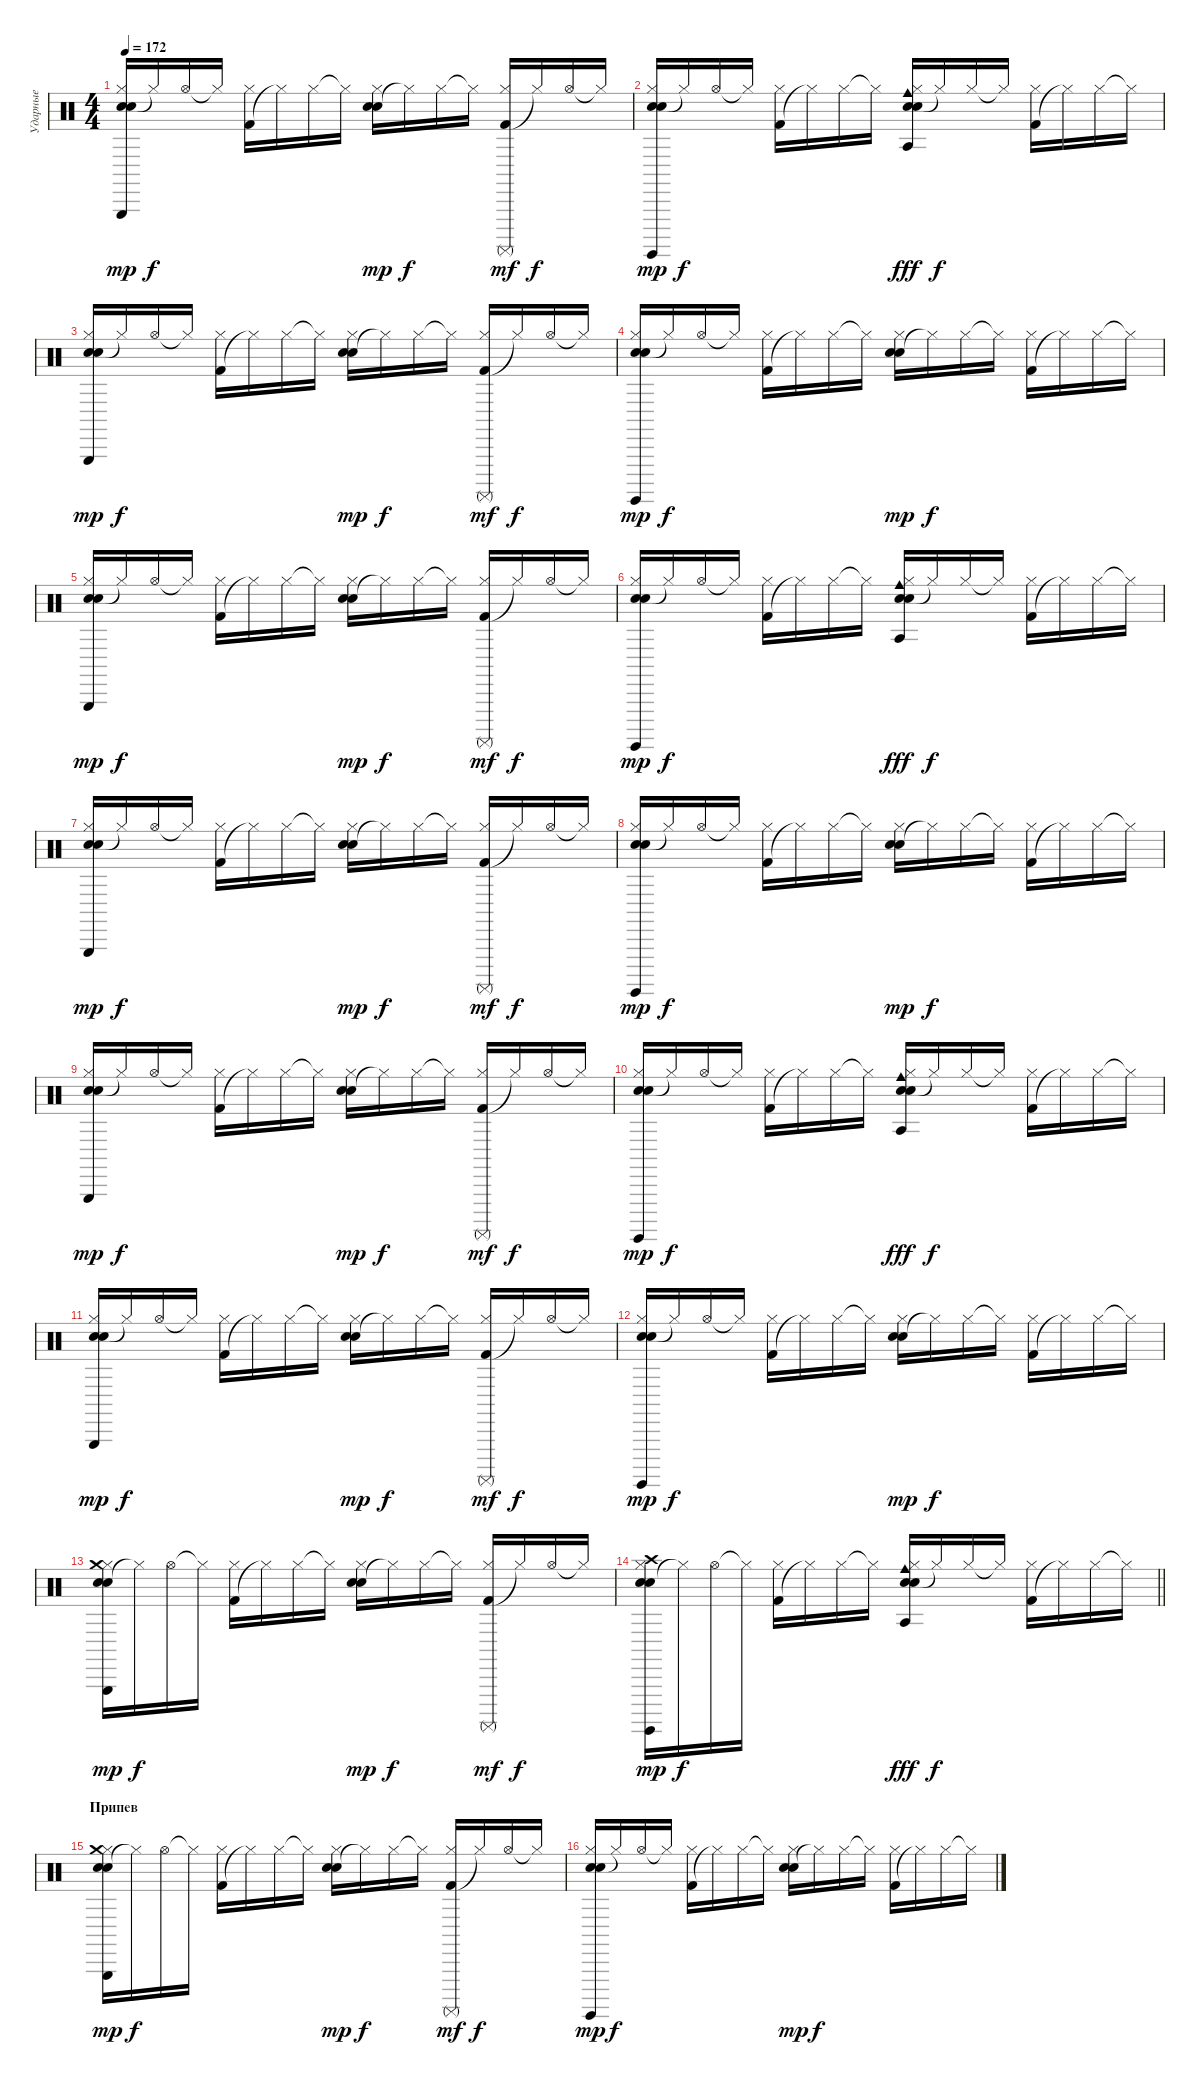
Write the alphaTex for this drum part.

\track ("Ударные" "Ударные") {instrument percussion}
\staff {score}
\articulation defaults
\ts (4 4)
\tempo 172
\clef neutral
\ks c
("Snare (hit) 2" "Electric Snare (hit)" "Hi-Hat (closed)" "Triangle (hit)").16{dy mp} "Hi-Hat (closed)"{t}.16{dy f} "Hi-Hat (open)".16 "Hi-Hat (closed)"{t}.16 ("Kick (hit) 2" "Hi-Hat (closed)").16 "Hi-Hat (closed)"{t}.16 "Hi-Hat (closed)".16 "Hi-Hat (closed)"{t}.16 ("Snare (hit) 2" "Electric Snare (hit)" "Hi-Hat (closed)").16{dy mp} "Hi-Hat (closed)"{t}.16{dy f} "Hi-Hat (closed)".16 "Hi-Hat (closed)"{t}.16 ("Kick (hit) 2" "Hi-Hat (closed)" "Surdo (mute)").16{dy mf} "Hi-Hat (closed)"{t}.16{dy f} "Hi-Hat (open)".16 "Hi-Hat (closed)"{t}.16 |
("Snare (hit) 2" "Electric Snare (hit)" "Hi-Hat (closed)" "Surdo (hit)").16{dy mp} "Hi-Hat (closed)"{t}.16{dy f} "Hi-Hat (open)".16 "Hi-Hat (closed)"{t}.16 ("Kick (hit) 2" "Hi-Hat (closed)").16 "Hi-Hat (closed)"{t}.16 "Hi-Hat (closed)".16 "Hi-Hat (closed)"{t}.16 ("Snare (hit) 2" "Electric Snare (hit)" "Hi-Hat (closed)" "Cowbell medium (hit)" "Agogo tow (hit)").16{dy fff} "Hi-Hat (closed)"{t}.16{dy f} "Hi-Hat (closed)".16 "Hi-Hat (closed)"{t}.16 ("Kick (hit) 2" "Hi-Hat (closed)").16 "Hi-Hat (closed)"{t}.16 "Hi-Hat (closed)".16 "Hi-Hat (closed)"{t}.16 |
("Snare (hit) 2" "Electric Snare (hit)" "Hi-Hat (closed)" "Triangle (hit)").16{dy mp} "Hi-Hat (closed)"{t}.16{dy f} "Hi-Hat (open)".16 "Hi-Hat (closed)"{t}.16 ("Kick (hit) 2" "Hi-Hat (closed)").16 "Hi-Hat (closed)"{t}.16 "Hi-Hat (closed)".16 "Hi-Hat (closed)"{t}.16 ("Snare (hit) 2" "Electric Snare (hit)" "Hi-Hat (closed)").16{dy mp} "Hi-Hat (closed)"{t}.16{dy f} "Hi-Hat (closed)".16 "Hi-Hat (closed)"{t}.16 ("Kick (hit) 2" "Hi-Hat (closed)" "Surdo (mute)").16{dy mf} "Hi-Hat (closed)"{t}.16{dy f} "Hi-Hat (open)".16 "Hi-Hat (closed)"{t}.16 |
("Snare (hit) 2" "Electric Snare (hit)" "Hi-Hat (closed)" "Surdo (hit)").16{dy mp} "Hi-Hat (closed)"{t}.16{dy f} "Hi-Hat (open)".16 "Hi-Hat (closed)"{t}.16 ("Kick (hit) 2" "Hi-Hat (closed)").16 "Hi-Hat (closed)"{t}.16 "Hi-Hat (closed)".16 "Hi-Hat (closed)"{t}.16 ("Snare (hit) 2" "Electric Snare (hit)" "Hi-Hat (closed)").16{dy mp} "Hi-Hat (closed)"{t}.16{dy f} "Hi-Hat (closed)".16 "Hi-Hat (closed)"{t}.16 ("Kick (hit) 2" "Hi-Hat (closed)").16 "Hi-Hat (closed)"{t}.16 "Hi-Hat (closed)".16 "Hi-Hat (closed)"{t}.16 |
("Snare (hit) 2" "Electric Snare (hit)" "Hi-Hat (closed)" "Triangle (hit)").16{dy mp} "Hi-Hat (closed)"{t}.16{dy f} "Hi-Hat (open)".16 "Hi-Hat (closed)"{t}.16 ("Kick (hit) 2" "Hi-Hat (closed)").16 "Hi-Hat (closed)"{t}.16 "Hi-Hat (closed)".16 "Hi-Hat (closed)"{t}.16 ("Snare (hit) 2" "Electric Snare (hit)" "Hi-Hat (closed)").16{dy mp} "Hi-Hat (closed)"{t}.16{dy f} "Hi-Hat (closed)".16 "Hi-Hat (closed)"{t}.16 ("Kick (hit) 2" "Hi-Hat (closed)" "Surdo (mute)").16{dy mf} "Hi-Hat (closed)"{t}.16{dy f} "Hi-Hat (open)".16 "Hi-Hat (closed)"{t}.16 |
("Snare (hit) 2" "Electric Snare (hit)" "Hi-Hat (closed)" "Surdo (hit)").16{dy mp} "Hi-Hat (closed)"{t}.16{dy f} "Hi-Hat (open)".16 "Hi-Hat (closed)"{t}.16 ("Kick (hit) 2" "Hi-Hat (closed)").16 "Hi-Hat (closed)"{t}.16 "Hi-Hat (closed)".16 "Hi-Hat (closed)"{t}.16 ("Snare (hit) 2" "Electric Snare (hit)" "Hi-Hat (closed)" "Cowbell medium (hit)" "Agogo tow (hit)").16{dy fff} "Hi-Hat (closed)"{t}.16{dy f} "Hi-Hat (closed)".16 "Hi-Hat (closed)"{t}.16 ("Kick (hit) 2" "Hi-Hat (closed)").16 "Hi-Hat (closed)"{t}.16 "Hi-Hat (closed)".16 "Hi-Hat (closed)"{t}.16 |
("Snare (hit) 2" "Electric Snare (hit)" "Hi-Hat (closed)" "Triangle (hit)").16{dy mp} "Hi-Hat (closed)"{t}.16{dy f} "Hi-Hat (open)".16 "Hi-Hat (closed)"{t}.16 ("Kick (hit) 2" "Hi-Hat (closed)").16 "Hi-Hat (closed)"{t}.16 "Hi-Hat (closed)".16 "Hi-Hat (closed)"{t}.16 ("Snare (hit) 2" "Electric Snare (hit)" "Hi-Hat (closed)").16{dy mp} "Hi-Hat (closed)"{t}.16{dy f} "Hi-Hat (closed)".16 "Hi-Hat (closed)"{t}.16 ("Kick (hit) 2" "Hi-Hat (closed)" "Surdo (mute)").16{dy mf} "Hi-Hat (closed)"{t}.16{dy f} "Hi-Hat (open)".16 "Hi-Hat (closed)"{t}.16 |
("Snare (hit) 2" "Electric Snare (hit)" "Hi-Hat (closed)" "Surdo (hit)").16{dy mp} "Hi-Hat (closed)"{t}.16{dy f} "Hi-Hat (open)".16 "Hi-Hat (closed)"{t}.16 ("Kick (hit) 2" "Hi-Hat (closed)").16 "Hi-Hat (closed)"{t}.16 "Hi-Hat (closed)".16 "Hi-Hat (closed)"{t}.16 ("Snare (hit) 2" "Electric Snare (hit)" "Hi-Hat (closed)").16{dy mp} "Hi-Hat (closed)"{t}.16{dy f} "Hi-Hat (closed)".16 "Hi-Hat (closed)"{t}.16 ("Kick (hit) 2" "Hi-Hat (closed)").16 "Hi-Hat (closed)"{t}.16 "Hi-Hat (closed)".16 "Hi-Hat (closed)"{t}.16 |
("Snare (hit) 2" "Electric Snare (hit)" "Hi-Hat (closed)" "Triangle (hit)").16{dy mp} "Hi-Hat (closed)"{t}.16{dy f} "Hi-Hat (open)".16 "Hi-Hat (closed)"{t}.16 ("Kick (hit) 2" "Hi-Hat (closed)").16 "Hi-Hat (closed)"{t}.16 "Hi-Hat (closed)".16 "Hi-Hat (closed)"{t}.16 ("Snare (hit) 2" "Electric Snare (hit)" "Hi-Hat (closed)").16{dy mp} "Hi-Hat (closed)"{t}.16{dy f} "Hi-Hat (closed)".16 "Hi-Hat (closed)"{t}.16 ("Kick (hit) 2" "Hi-Hat (closed)" "Surdo (mute)").16{dy mf} "Hi-Hat (closed)"{t}.16{dy f} "Hi-Hat (open)".16 "Hi-Hat (closed)"{t}.16 |
("Snare (hit) 2" "Electric Snare (hit)" "Hi-Hat (closed)" "Surdo (hit)").16{dy mp} "Hi-Hat (closed)"{t}.16{dy f} "Hi-Hat (open)".16 "Hi-Hat (closed)"{t}.16 ("Kick (hit) 2" "Hi-Hat (closed)").16 "Hi-Hat (closed)"{t}.16 "Hi-Hat (closed)".16 "Hi-Hat (closed)"{t}.16 ("Snare (hit) 2" "Electric Snare (hit)" "Hi-Hat (closed)" "Cowbell medium (hit)" "Agogo tow (hit)").16{dy fff} "Hi-Hat (closed)"{t}.16{dy f} "Hi-Hat (closed)".16 "Hi-Hat (closed)"{t}.16 ("Kick (hit) 2" "Hi-Hat (closed)").16 "Hi-Hat (closed)"{t}.16 "Hi-Hat (closed)".16 "Hi-Hat (closed)"{t}.16 |
("Snare (hit) 2" "Electric Snare (hit)" "Hi-Hat (closed)" "Triangle (hit)").16{dy mp} "Hi-Hat (closed)"{t}.16{dy f} "Hi-Hat (open)".16 "Hi-Hat (closed)"{t}.16 ("Kick (hit) 2" "Hi-Hat (closed)").16 "Hi-Hat (closed)"{t}.16 "Hi-Hat (closed)".16 "Hi-Hat (closed)"{t}.16 ("Snare (hit) 2" "Electric Snare (hit)" "Hi-Hat (closed)").16{dy mp} "Hi-Hat (closed)"{t}.16{dy f} "Hi-Hat (closed)".16 "Hi-Hat (closed)"{t}.16 ("Kick (hit) 2" "Hi-Hat (closed)" "Surdo (mute)").16{dy mf} "Hi-Hat (closed)"{t}.16{dy f} "Hi-Hat (open)".16 "Hi-Hat (closed)"{t}.16 |
("Snare (hit) 2" "Electric Snare (hit)" "Hi-Hat (closed)" "Surdo (hit)").16{dy mp} "Hi-Hat (closed)"{t}.16{dy f} "Hi-Hat (open)".16 "Hi-Hat (closed)"{t}.16 ("Kick (hit) 2" "Hi-Hat (closed)").16 "Hi-Hat (closed)"{t}.16 "Hi-Hat (closed)".16 "Hi-Hat (closed)"{t}.16 ("Snare (hit) 2" "Electric Snare (hit)" "Hi-Hat (closed)").16{dy mp} "Hi-Hat (closed)"{t}.16{dy f} "Hi-Hat (closed)".16 "Hi-Hat (closed)"{t}.16 ("Kick (hit) 2" "Hi-Hat (closed)").16 "Hi-Hat (closed)"{t}.16 "Hi-Hat (closed)".16 "Hi-Hat (closed)"{t}.16 |
("Snare (hit) 2" "Electric Snare (hit)" "Hi-Hat (closed)" "Triangle (hit)" "Crash medium (hit)").16{dy mp} "Hi-Hat (closed)"{t}.16{dy f} "Hi-Hat (open)".16 "Hi-Hat (closed)"{t}.16 ("Kick (hit) 2" "Hi-Hat (closed)").16 "Hi-Hat (closed)"{t}.16 "Hi-Hat (closed)".16 "Hi-Hat (closed)"{t}.16 ("Snare (hit) 2" "Electric Snare (hit)" "Hi-Hat (closed)").16{dy mp} "Hi-Hat (closed)"{t}.16{dy f} "Hi-Hat (closed)".16 "Hi-Hat (closed)"{t}.16 ("Kick (hit) 2" "Hi-Hat (closed)" "Surdo (mute)").16{dy mf} "Hi-Hat (closed)"{t}.16{dy f} "Hi-Hat (open)".16 "Hi-Hat (closed)"{t}.16 |
\barLineRight lightlight
("Snare (hit) 2" "Electric Snare (hit)" "Hi-Hat (closed)" "Surdo (hit)" "Crash high (hit)").16{dy mp} "Hi-Hat (closed)"{t}.16{dy f} "Hi-Hat (open)".16 "Hi-Hat (closed)"{t}.16 ("Kick (hit) 2" "Hi-Hat (closed)").16 "Hi-Hat (closed)"{t}.16 "Hi-Hat (closed)".16 "Hi-Hat (closed)"{t}.16 ("Snare (hit) 2" "Electric Snare (hit)" "Hi-Hat (closed)" "Cowbell medium (hit)" "Agogo tow (hit)").16{dy fff} "Hi-Hat (closed)"{t}.16{dy f} "Hi-Hat (closed)".16 "Hi-Hat (closed)"{t}.16 ("Kick (hit) 2" "Hi-Hat (closed)").16 "Hi-Hat (closed)"{t}.16 "Hi-Hat (closed)".16 "Hi-Hat (closed)"{t}.16 |
\section ("" "Припев")
("Snare (hit) 2" "Electric Snare (hit)" "Hi-Hat (closed)" "Triangle (hit)" "Crash medium (hit)").16{dy mp} "Hi-Hat (closed)"{t}.16{dy f} "Hi-Hat (open)".16 "Hi-Hat (closed)"{t}.16 ("Kick (hit) 2" "Hi-Hat (closed)").16 "Hi-Hat (closed)"{t}.16 "Hi-Hat (closed)".16 "Hi-Hat (closed)"{t}.16 ("Snare (hit) 2" "Electric Snare (hit)" "Hi-Hat (closed)").16{dy mp} "Hi-Hat (closed)"{t}.16{dy f} "Hi-Hat (closed)".16 "Hi-Hat (closed)"{t}.16 ("Kick (hit) 2" "Hi-Hat (closed)" "Surdo (mute)").16{dy mf} "Hi-Hat (closed)"{t}.16{dy f} "Hi-Hat (open)".16 "Hi-Hat (closed)"{t}.16 |
("Snare (hit) 2" "Electric Snare (hit)" "Hi-Hat (closed)" "Surdo (hit)").16{dy mp} "Hi-Hat (closed)"{t}.16{dy f} "Hi-Hat (open)".16 "Hi-Hat (closed)"{t}.16 ("Kick (hit) 2" "Hi-Hat (closed)").16 "Hi-Hat (closed)"{t}.16 "Hi-Hat (closed)".16 "Hi-Hat (closed)"{t}.16 ("Snare (hit) 2" "Electric Snare (hit)" "Hi-Hat (closed)").16{dy mp} "Hi-Hat (closed)"{t}.16{dy f} "Hi-Hat (closed)".16 "Hi-Hat (closed)"{t}.16 ("Kick (hit) 2" "Hi-Hat (closed)").16 "Hi-Hat (closed)"{t}.16 "Hi-Hat (closed)".16 "Hi-Hat (closed)"{t}.16
